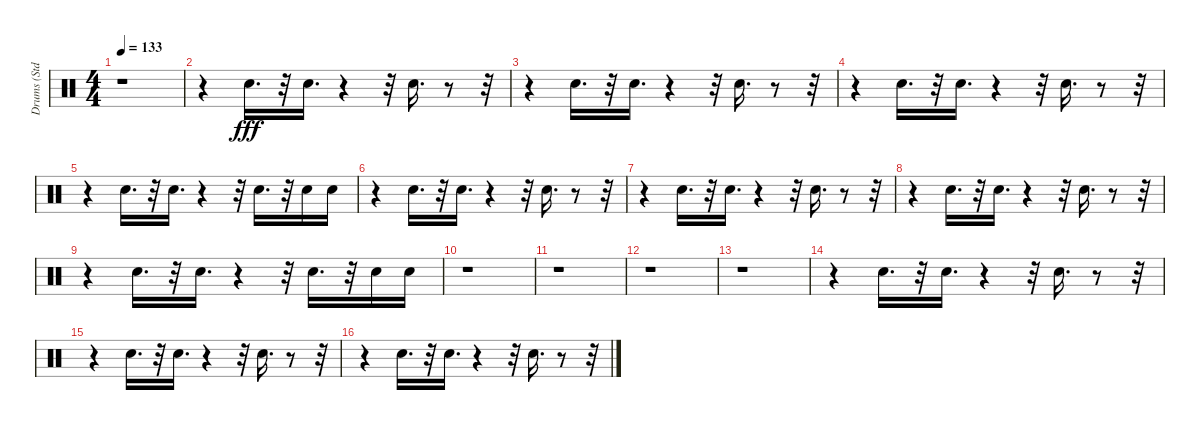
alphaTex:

\track ("Drums (Std.)" "Drums (Std") {instrument percussion}
\staff {score}
\articulation defaults
\ts (4 4)
\tempo 133
\clef neutral
\ks c
r.1{dy fff} |
r.4 "Snare (hit) 2".16{d} r.32 "Snare (hit) 2".16{d} r.4 r.32 "Snare (hit) 2".16{d} r.8 r.32 |
r.4 "Snare (hit) 2".16{d} r.32 "Snare (hit) 2".16{d} r.4 r.32 "Snare (hit) 2".16{d} r.8 r.32 |
r.4 "Snare (hit) 2".16{d} r.32 "Snare (hit) 2".16{d} r.4 r.32 "Snare (hit) 2".16{d} r.8 r.32 |
r.4 "Snare (hit) 2".16{d} r.32 "Snare (hit) 2".16{d} r.4 r.32 "Snare (hit) 2".16{d} r.32 "Snare (hit) 2".16 "Snare (hit) 2".16 |
r.4 "Snare (hit) 2".16{d} r.32 "Snare (hit) 2".16{d} r.4 r.32 "Snare (hit) 2".16{d} r.8 r.32 |
r.4 "Snare (hit) 2".16{d} r.32 "Snare (hit) 2".16{d} r.4 r.32 "Snare (hit) 2".16{d} r.8 r.32 |
r.4 "Snare (hit) 2".16{d} r.32 "Snare (hit) 2".16{d} r.4 r.32 "Snare (hit) 2".16{d} r.8 r.32 |
r.4 "Snare (hit) 2".16{d} r.32 "Snare (hit) 2".16{d} r.4 r.32 "Snare (hit) 2".16{d} r.32 "Snare (hit) 2".16 "Snare (hit) 2".16 |
r.1 |
r.1 |
r.1 |
r.1 |
r.4 "Snare (hit) 2".16{d} r.32 "Snare (hit) 2".16{d} r.4 r.32 "Snare (hit) 2".16{d} r.8 r.32 |
r.4 "Snare (hit) 2".16{d} r.32 "Snare (hit) 2".16{d} r.4 r.32 "Snare (hit) 2".16{d} r.8 r.32 |
r.4 "Snare (hit) 2".16{d} r.32 "Snare (hit) 2".16{d} r.4 r.32 "Snare (hit) 2".16{d} r.8 r.32
